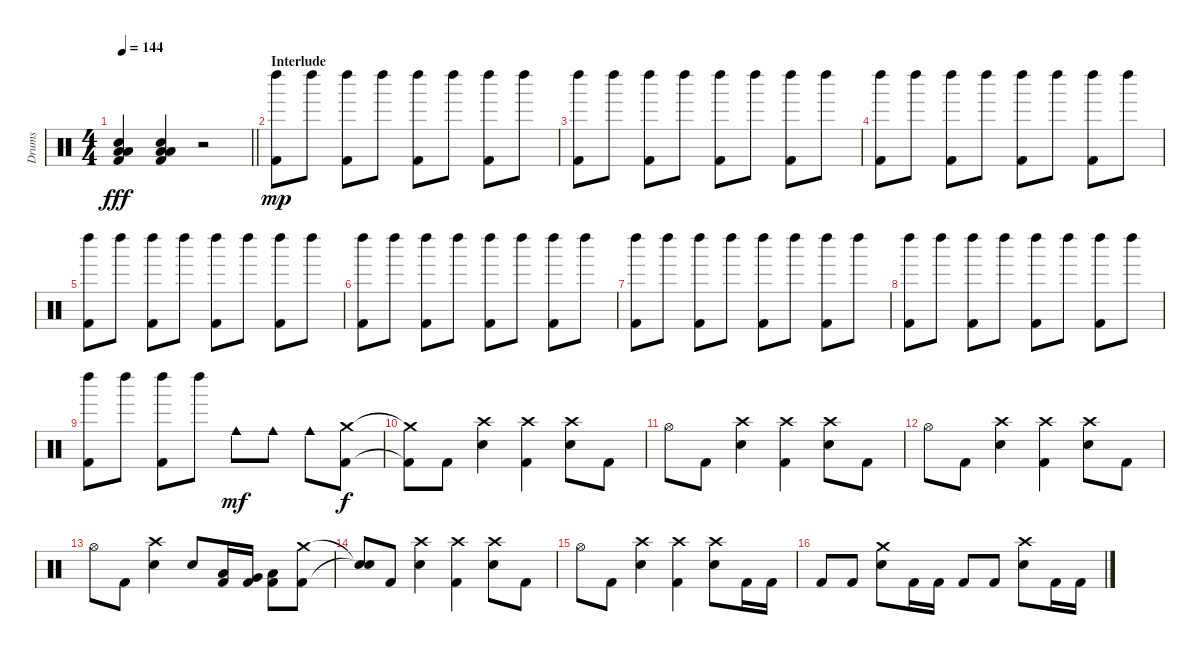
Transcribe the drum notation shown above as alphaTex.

\track ("Drums" "Drums") {instrument percussion}
\staff {score}
\articulation defaults
\ts (4 4)
\tempo 144
\clef neutral
\barLineRight lightlight
\ks c
("Kick (hit) 2" "Low Floor Tom (hit)" "Low Floor Tom (hit)" "Snare (hit) 2").4{dy fff} ("Kick (hit) 2" "Low Floor Tom (hit)" "Low Floor Tom (hit)" "Snare (hit) 2").4 r.2 |
\section ("" "Interlude")
("Kick (hit) 2" "Left Maraca (hit)").8{dy mp} "Left Maraca (hit)".8 ("Kick (hit) 2" "Left Maraca (hit)").8 "Left Maraca (hit)".8 ("Kick (hit) 2" "Left Maraca (hit)").8 "Left Maraca (hit)".8 ("Kick (hit) 2" "Left Maraca (hit)").8 "Left Maraca (hit)".8 |
("Kick (hit) 2" "Left Maraca (hit)").8 "Left Maraca (hit)".8 ("Kick (hit) 2" "Left Maraca (hit)").8 "Left Maraca (hit)".8 ("Kick (hit) 2" "Left Maraca (hit)").8 "Left Maraca (hit)".8 ("Kick (hit) 2" "Left Maraca (hit)").8 "Left Maraca (hit)".8 |
("Kick (hit) 2" "Left Maraca (hit)").8 "Left Maraca (hit)".8 ("Kick (hit) 2" "Left Maraca (hit)").8 "Left Maraca (hit)".8 ("Kick (hit) 2" "Left Maraca (hit)").8 "Left Maraca (hit)".8 ("Kick (hit) 2" "Left Maraca (hit)").8 "Left Maraca (hit)".8 |
("Kick (hit) 2" "Left Maraca (hit)").8 "Left Maraca (hit)".8 ("Kick (hit) 2" "Left Maraca (hit)").8 "Left Maraca (hit)".8 ("Kick (hit) 2" "Left Maraca (hit)").8 "Left Maraca (hit)".8 ("Kick (hit) 2" "Left Maraca (hit)").8 "Left Maraca (hit)".8 |
("Kick (hit) 2" "Left Maraca (hit)").8 "Left Maraca (hit)".8 ("Kick (hit) 2" "Left Maraca (hit)").8 "Left Maraca (hit)".8 ("Kick (hit) 2" "Left Maraca (hit)").8 "Left Maraca (hit)".8 ("Kick (hit) 2" "Left Maraca (hit)").8 "Left Maraca (hit)".8 |
("Kick (hit) 2" "Left Maraca (hit)").8 "Left Maraca (hit)".8 ("Kick (hit) 2" "Left Maraca (hit)").8 "Left Maraca (hit)".8 ("Kick (hit) 2" "Left Maraca (hit)").8 "Left Maraca (hit)".8 ("Kick (hit) 2" "Left Maraca (hit)").8 "Left Maraca (hit)".8 |
("Kick (hit) 2" "Left Maraca (hit)").8 "Left Maraca (hit)".8 ("Kick (hit) 2" "Left Maraca (hit)").8 "Left Maraca (hit)".8 ("Kick (hit) 2" "Left Maraca (hit)").8 "Left Maraca (hit)".8 ("Kick (hit) 2" "Left Maraca (hit)").8 "Left Maraca (hit)".8 |
("Kick (hit) 2" "Left Maraca (hit)").8 "Left Maraca (hit)".8 ("Kick (hit) 2" "Left Maraca (hit)").8 "Left Maraca (hit)".8 "Cowbell medium (hit)".8{dy mf} "Cowbell medium (hit)".8 "Cowbell medium (hit)".8 ("Kick (hit) 2" "Crash medium (hit)").8{dy f} |
("Kick (hit) 2"{t} "Crash medium (hit)"{t}).8 "Kick (hit) 2".8 ("Crash high (hit)" "Snare (hit) 2").4 ("Kick (hit) 2" "Crash high (hit)").4 ("Crash high (hit)" "Snare (hit) 2").8 "Kick (hit) 2".8 |
"Hi-Hat (open)".8 "Kick (hit) 2".8 ("Crash high (hit)" "Snare (hit) 2").4 ("Kick (hit) 2" "Crash high (hit)").4 ("Crash high (hit)" "Snare (hit) 2").8 "Kick (hit) 2".8 |
"Hi-Hat (open)".8 "Kick (hit) 2".8 ("Crash high (hit)" "Snare (hit) 2").4 ("Kick (hit) 2" "Crash high (hit)").4 ("Crash high (hit)" "Snare (hit) 2").8 "Kick (hit) 2".8 |
"Hi-Hat (open)".8 "Kick (hit) 2".8 ("Crash high (hit)" "Snare (hit) 2").4 "Snare (hit) 2".8 ("Kick (hit) 2" "Low Tom (hit)").16 ("Kick (hit) 2" "Very Low Tom (hit)").16 ("Kick (hit) 2" "Low Floor Tom (hit)").8 ("Kick (hit) 2" "Crash medium (hit)").8 |
("Snare (hit)"{t} "Snare (hit)"{t}).8 "Kick (hit) 2".8 ("Crash high (hit)" "Snare (hit) 2").4 ("Kick (hit) 2" "Crash high (hit)").4 ("Crash high (hit)" "Snare (hit) 2").8 "Kick (hit) 2".8 |
"Hi-Hat (open)".8 "Kick (hit) 2".8 ("Crash high (hit)" "Snare (hit) 2").4 ("Kick (hit) 2" "Crash high (hit)").4 ("Crash high (hit)" "Snare (hit) 2").8 "Kick (hit) 2".16 "Kick (hit) 2".16 |
"Kick (hit) 2".8 "Kick (hit) 2".8 ("Crash medium (hit)" "Snare (hit) 2").8 "Kick (hit) 2".16 "Kick (hit) 2".16 "Kick (hit) 2".8 "Kick (hit) 2".8 ("Crash high (hit)" "Snare (hit) 2").8 "Kick (hit) 2".16 "Kick (hit) 2".16
